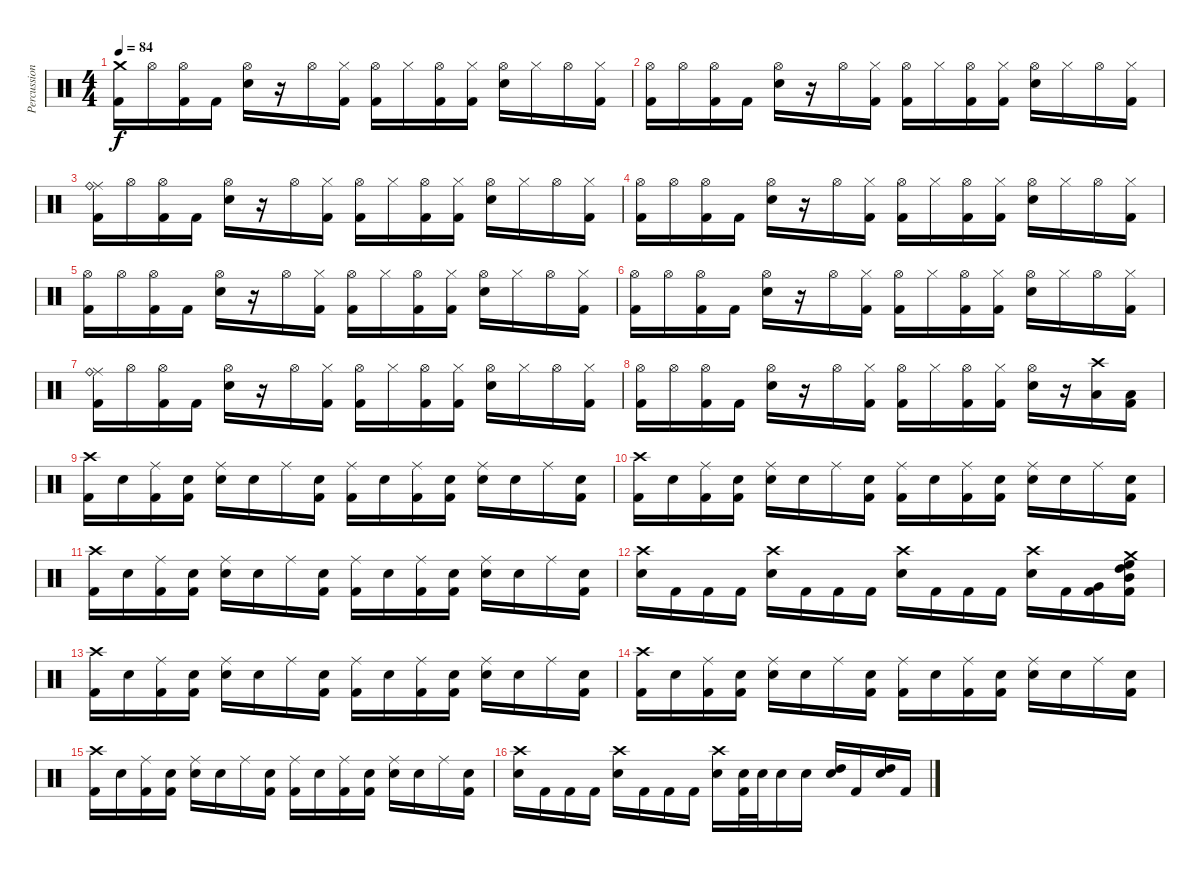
\track ("Percussion" "Percussion") {instrument percussion}
\staff {score}
\articulation defaults
\ts (4 4)
\tempo 84
\clef neutral
\ks c
("Crash medium (hit)" "Kick (hit) 2").16{dy f} "Hi-Hat (open)".16 ("Hi-Hat (open)" "Kick (hit) 2").16 "Kick (hit) 2".16 ("Hi-Hat (open)" "Electric Snare (hit)").16 r.16 "Hi-Hat (open)".16 ("Hi-Hat (closed)" "Kick (hit) 2").16 ("Hi-Hat (open)" "Kick (hit) 2").16 "Hi-Hat (closed)".16 ("Hi-Hat (open)" "Kick (hit) 2").16 ("Hi-Hat (closed)" "Kick (hit) 2").16 ("Hi-Hat (open)" "Electric Snare (hit)").16 "Hi-Hat (closed)".16 "Hi-Hat (open)".16 ("Hi-Hat (closed)" "Kick (hit) 2").16 |
("Hi-Hat (open)" "Kick (hit) 2").16 "Hi-Hat (open)".16 ("Hi-Hat (open)" "Kick (hit) 2").16 "Kick (hit) 2".16 ("Hi-Hat (open)" "Electric Snare (hit)").16 r.16 "Hi-Hat (open)".16 ("Hi-Hat (closed)" "Kick (hit) 2").16 ("Hi-Hat (open)" "Kick (hit) 2").16 "Hi-Hat (closed)".16 ("Hi-Hat (open)" "Kick (hit) 2").16 ("Hi-Hat (closed)" "Kick (hit) 2").16 ("Hi-Hat (open)" "Electric Snare (hit)").16 "Hi-Hat (closed)".16 "Hi-Hat (open)".16 ("Hi-Hat (closed)" "Kick (hit) 2").16 |
("Ride (middle)" "Ride (bell)" "Kick (hit) 2").16 "Hi-Hat (open)".16 ("Hi-Hat (open)" "Kick (hit) 2").16 "Kick (hit) 2".16 ("Hi-Hat (open)" "Electric Snare (hit)").16 r.16 "Hi-Hat (open)".16 ("Hi-Hat (closed)" "Kick (hit) 2").16 ("Hi-Hat (open)" "Kick (hit) 2").16 "Hi-Hat (closed)".16 ("Hi-Hat (open)" "Kick (hit) 2").16 ("Hi-Hat (closed)" "Kick (hit) 2").16 ("Hi-Hat (open)" "Electric Snare (hit)").16 "Hi-Hat (closed)".16 "Hi-Hat (open)".16 ("Hi-Hat (closed)" "Kick (hit) 2").16 |
("Hi-Hat (open)" "Kick (hit) 2").16 "Hi-Hat (open)".16 ("Hi-Hat (open)" "Kick (hit) 2").16 "Kick (hit) 2".16 ("Hi-Hat (open)" "Electric Snare (hit)").16 r.16 "Hi-Hat (open)".16 ("Hi-Hat (closed)" "Kick (hit) 2").16 ("Hi-Hat (open)" "Kick (hit) 2").16 "Hi-Hat (closed)".16 ("Hi-Hat (open)" "Kick (hit) 2").16 ("Hi-Hat (closed)" "Kick (hit) 2").16 ("Hi-Hat (open)" "Electric Snare (hit)").16 "Hi-Hat (closed)".16 "Hi-Hat (open)".16 ("Hi-Hat (closed)" "Kick (hit) 2").16 |
("Hi-Hat (open)" "Kick (hit) 2").16 "Hi-Hat (open)".16 ("Hi-Hat (open)" "Kick (hit) 2").16 "Kick (hit) 2".16 ("Hi-Hat (open)" "Electric Snare (hit)").16 r.16 "Hi-Hat (open)".16 ("Hi-Hat (closed)" "Kick (hit) 2").16 ("Hi-Hat (open)" "Kick (hit) 2").16 "Hi-Hat (closed)".16 ("Hi-Hat (open)" "Kick (hit) 2").16 ("Hi-Hat (closed)" "Kick (hit) 2").16 ("Hi-Hat (open)" "Electric Snare (hit)").16 "Hi-Hat (closed)".16 "Hi-Hat (open)".16 ("Hi-Hat (closed)" "Kick (hit) 2").16 |
("Hi-Hat (open)" "Kick (hit) 2").16 "Hi-Hat (open)".16 ("Hi-Hat (open)" "Kick (hit) 2").16 "Kick (hit) 2".16 ("Hi-Hat (open)" "Electric Snare (hit)").16 r.16 "Hi-Hat (open)".16 ("Hi-Hat (closed)" "Kick (hit) 2").16 ("Hi-Hat (open)" "Kick (hit) 2").16 "Hi-Hat (closed)".16 ("Hi-Hat (open)" "Kick (hit) 2").16 ("Hi-Hat (closed)" "Kick (hit) 2").16 ("Hi-Hat (open)" "Electric Snare (hit)").16 "Hi-Hat (closed)".16 "Hi-Hat (open)".16 ("Hi-Hat (closed)" "Kick (hit) 2").16 |
("Ride (middle)" "Ride (bell)" "Kick (hit) 2").16 "Hi-Hat (open)".16 ("Hi-Hat (open)" "Kick (hit) 2").16 "Kick (hit) 2".16 ("Hi-Hat (open)" "Electric Snare (hit)").16 r.16 "Hi-Hat (open)".16 ("Hi-Hat (closed)" "Kick (hit) 2").16 ("Hi-Hat (open)" "Kick (hit) 2").16 "Hi-Hat (closed)".16 ("Hi-Hat (open)" "Kick (hit) 2").16 ("Hi-Hat (closed)" "Kick (hit) 2").16 ("Hi-Hat (open)" "Electric Snare (hit)").16 "Hi-Hat (closed)".16 "Hi-Hat (open)".16 ("Hi-Hat (closed)" "Kick (hit) 2").16 |
("Hi-Hat (open)" "Kick (hit) 2").16 "Hi-Hat (open)".16 ("Hi-Hat (open)" "Kick (hit) 2").16 "Kick (hit) 2".16 ("Hi-Hat (open)" "Electric Snare (hit)").16 r.16 "Hi-Hat (open)".16 ("Hi-Hat (closed)" "Kick (hit) 2").16 ("Hi-Hat (open)" "Kick (hit) 2").16 "Hi-Hat (closed)".16 ("Hi-Hat (open)" "Kick (hit) 2").16 ("Hi-Hat (closed)" "Kick (hit) 2").16 ("Hi-Hat (open)" "Snare (hit) 2").16 r.16 ("Crash high (hit)" "Low Tom (hit)").16 ("Low Tom (hit)" "Kick (hit) 2").16 |
("Crash high (hit)" "Kick (hit) 2").16 "Snare (hit)".16 ("Ride (middle)" "Kick (hit) 2").16 ("Snare (hit)" "Kick (hit) 2").16 ("Ride (middle)" "Snare (hit) 2").16 "Snare (hit)".16 "Ride (middle)".16 ("Snare (hit)" "Kick (hit) 2").16 ("Ride (middle)" "Kick (hit) 2").16 "Snare (hit)".16 ("Ride (middle)" "Kick (hit) 2").16 ("Snare (hit)" "Kick (hit) 2").16 ("Ride (middle)" "Snare (hit) 2").16 "Snare (hit)".16 "Ride (middle)".16 ("Snare (hit)" "Kick (hit) 2").16 |
("Crash high (hit)" "Kick (hit) 2").16 "Snare (hit)".16 ("Ride (middle)" "Kick (hit) 2").16 ("Snare (hit)" "Kick (hit) 2").16 ("Ride (middle)" "Snare (hit) 2").16 "Snare (hit)".16 "Ride (middle)".16 ("Snare (hit)" "Kick (hit) 2").16 ("Ride (middle)" "Kick (hit) 2").16 "Snare (hit)".16 ("Ride (middle)" "Kick (hit) 2").16 ("Snare (hit)" "Kick (hit) 2").16 ("Ride (middle)" "Snare (hit) 2").16 "Snare (hit)".16 "Ride (middle)".16 ("Snare (hit)" "Kick (hit) 2").16 |
("Crash high (hit)" "Kick (hit) 2").16 "Snare (hit)".16 ("Ride (middle)" "Kick (hit) 2").16 ("Snare (hit)" "Kick (hit) 2").16 ("Ride (middle)" "Snare (hit) 2").16 "Snare (hit)".16 "Ride (middle)".16 ("Snare (hit)" "Kick (hit) 2").16 ("Ride (middle)" "Kick (hit) 2").16 "Snare (hit)".16 ("Ride (middle)" "Kick (hit) 2").16 ("Snare (hit)" "Kick (hit) 2").16 ("Ride (middle)" "Snare (hit) 2").16 "Snare (hit)".16 "Ride (middle)".16 ("Snare (hit)" "Kick (hit) 2").16 |
("Crash high (hit)" "Snare (hit) 2").16 "Kick (hit) 2".16 "Kick (hit) 2".16 "Kick (hit) 2".16 ("Crash high (hit)" "Snare (hit) 2").16 "Kick (hit) 2".16 "Kick (hit) 2".16 "Kick (hit) 2".16 ("Crash high (hit)" "Snare (hit) 2").16 "Kick (hit) 2".16 "Kick (hit) 2".16 "Kick (hit) 2".16 ("Crash high (hit)" "Snare (hit) 2").16 "Kick (hit) 2".16 ("Very Low Tom (hit)" "Kick (hit) 2").16 ("Crash medium (hit)" "High Tom (hit)" "Mid Tom (hit)" "High Floor Tom (hit)" "Kick (hit) 2").16 |
("Crash high (hit)" "Kick (hit) 2").16 "Snare (hit)".16 ("Ride (middle)" "Kick (hit) 2").16 ("Snare (hit)" "Kick (hit) 2").16 ("Ride (middle)" "Snare (hit) 2").16 "Snare (hit)".16 "Ride (middle)".16 ("Snare (hit)" "Kick (hit) 2").16 ("Ride (middle)" "Kick (hit) 2").16 "Snare (hit)".16 ("Ride (middle)" "Kick (hit) 2").16 ("Snare (hit)" "Kick (hit) 2").16 ("Ride (middle)" "Snare (hit) 2").16 "Snare (hit)".16 "Ride (middle)".16 ("Snare (hit)" "Kick (hit) 2").16 |
("Crash high (hit)" "Kick (hit) 2").16 "Snare (hit)".16 ("Ride (middle)" "Kick (hit) 2").16 ("Snare (hit)" "Kick (hit) 2").16 ("Ride (middle)" "Snare (hit) 2").16 "Snare (hit)".16 "Ride (middle)".16 ("Snare (hit)" "Kick (hit) 2").16 ("Ride (middle)" "Kick (hit) 2").16 "Snare (hit)".16 ("Ride (middle)" "Kick (hit) 2").16 ("Snare (hit)" "Kick (hit) 2").16 ("Ride (middle)" "Snare (hit) 2").16 "Snare (hit)".16 "Ride (middle)".16 ("Snare (hit)" "Kick (hit) 2").16 |
("Crash high (hit)" "Kick (hit) 2").16 "Snare (hit)".16 ("Ride (middle)" "Kick (hit) 2").16 ("Snare (hit)" "Kick (hit) 2").16 ("Ride (middle)" "Snare (hit) 2").16 "Snare (hit)".16 "Ride (middle)".16 ("Snare (hit)" "Kick (hit) 2").16 ("Ride (middle)" "Kick (hit) 2").16 "Snare (hit)".16 ("Ride (middle)" "Kick (hit) 2").16 ("Snare (hit)" "Kick (hit) 2").16 ("Ride (middle)" "Snare (hit) 2").16 "Snare (hit)".16 "Ride (middle)".16 ("Snare (hit)" "Kick (hit) 2").16 |
("Crash high (hit)" "Snare (hit) 2").16 "Kick (hit) 2".16 "Kick (hit) 2".16 "Kick (hit) 2".16 ("Crash high (hit)" "Snare (hit) 2").16 "Kick (hit) 2".16 "Kick (hit) 2".16 "Kick (hit) 2".16 ("Crash high (hit)" "Snare (hit) 2").16 ("Snare (hit) 2" "Kick (hit) 2").32 "Snare (hit) 2".32 "Snare (hit) 2".16 "Snare (hit) 2".16 ("High Tom (hit)" "Snare (hit) 2").16 "Kick (hit) 2".16 ("High Tom (hit)" "Snare (hit) 2").16 "Kick (hit) 2".16
